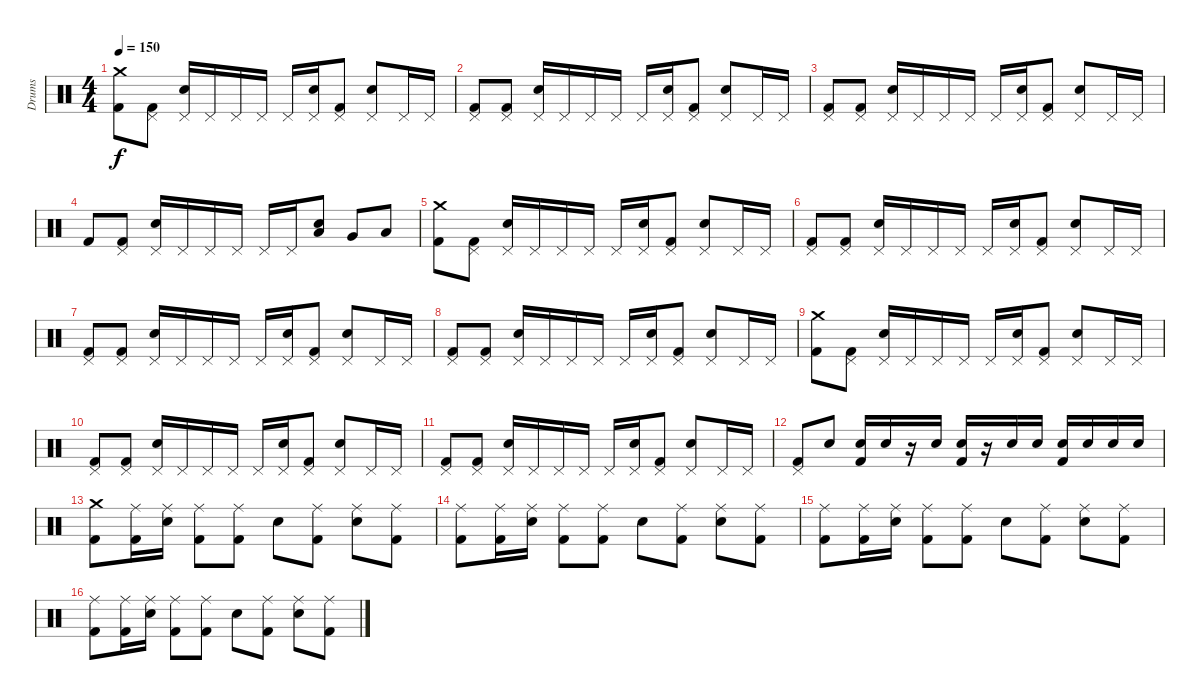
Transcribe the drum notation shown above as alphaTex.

\track ("Drums" "Drums") {instrument percussion}
\staff {score}
\articulation defaults
\ts (4 4)
\tempo 150
\clef neutral
\ks c
("Crash medium (hit)" "Kick (hit) 2").8{dy f} ("Pedal Hi-Hat (hit)" "Kick (hit) 2").8 ("Pedal Hi-Hat (hit)" "Electric Snare (hit)").16 "Pedal Hi-Hat (hit)".16 "Pedal Hi-Hat (hit)".16 "Pedal Hi-Hat (hit)".16 "Pedal Hi-Hat (hit)".16 ("Pedal Hi-Hat (hit)" "Electric Snare (hit)").16 ("Pedal Hi-Hat (hit)" "Kick (hit) 2").8 ("Pedal Hi-Hat (hit)" "Electric Snare (hit)").8 "Pedal Hi-Hat (hit)".16 "Pedal Hi-Hat (hit)".16 |
("Pedal Hi-Hat (hit)" "Kick (hit) 2").8 ("Pedal Hi-Hat (hit)" "Kick (hit) 2").8 ("Pedal Hi-Hat (hit)" "Electric Snare (hit)").16 "Pedal Hi-Hat (hit)".16 "Pedal Hi-Hat (hit)".16 "Pedal Hi-Hat (hit)".16 "Pedal Hi-Hat (hit)".16 ("Pedal Hi-Hat (hit)" "Electric Snare (hit)").16 ("Pedal Hi-Hat (hit)" "Kick (hit) 2").8 ("Pedal Hi-Hat (hit)" "Electric Snare (hit)").8 "Pedal Hi-Hat (hit)".16 "Pedal Hi-Hat (hit)".16 |
("Pedal Hi-Hat (hit)" "Kick (hit) 2").8 ("Pedal Hi-Hat (hit)" "Kick (hit) 2").8 ("Pedal Hi-Hat (hit)" "Electric Snare (hit)").16 "Pedal Hi-Hat (hit)".16 "Pedal Hi-Hat (hit)".16 "Pedal Hi-Hat (hit)".16 "Pedal Hi-Hat (hit)".16 ("Pedal Hi-Hat (hit)" "Electric Snare (hit)").16 ("Pedal Hi-Hat (hit)" "Kick (hit) 2").8 ("Pedal Hi-Hat (hit)" "Electric Snare (hit)").8 "Pedal Hi-Hat (hit)".16 "Pedal Hi-Hat (hit)".16 |
"Kick (hit) 2".8 ("Pedal Hi-Hat (hit)" "Kick (hit) 2").8 ("Pedal Hi-Hat (hit)" "Electric Snare (hit)").16 "Pedal Hi-Hat (hit)".16 "Pedal Hi-Hat (hit)".16 "Pedal Hi-Hat (hit)".16 "Pedal Hi-Hat (hit)".16 "Pedal Hi-Hat (hit)".16 ("Electric Snare (hit)" "Low Floor Tom (hit)").8 "Very Low Tom (hit)".8 "Low Floor Tom (hit)".8 |
("Crash medium (hit)" "Kick (hit) 2").8 ("Pedal Hi-Hat (hit)" "Kick (hit) 2").8 ("Pedal Hi-Hat (hit)" "Electric Snare (hit)").16 "Pedal Hi-Hat (hit)".16 "Pedal Hi-Hat (hit)".16 "Pedal Hi-Hat (hit)".16 "Pedal Hi-Hat (hit)".16 ("Pedal Hi-Hat (hit)" "Electric Snare (hit)").16 ("Pedal Hi-Hat (hit)" "Kick (hit) 2").8 ("Pedal Hi-Hat (hit)" "Electric Snare (hit)").8 "Pedal Hi-Hat (hit)".16 "Pedal Hi-Hat (hit)".16 |
("Pedal Hi-Hat (hit)" "Kick (hit) 2").8 ("Pedal Hi-Hat (hit)" "Kick (hit) 2").8 ("Pedal Hi-Hat (hit)" "Electric Snare (hit)").16 "Pedal Hi-Hat (hit)".16 "Pedal Hi-Hat (hit)".16 "Pedal Hi-Hat (hit)".16 "Pedal Hi-Hat (hit)".16 ("Pedal Hi-Hat (hit)" "Electric Snare (hit)").16 ("Pedal Hi-Hat (hit)" "Kick (hit) 2").8 ("Pedal Hi-Hat (hit)" "Electric Snare (hit)").8 "Pedal Hi-Hat (hit)".16 "Pedal Hi-Hat (hit)".16 |
("Pedal Hi-Hat (hit)" "Kick (hit) 2").8 ("Pedal Hi-Hat (hit)" "Kick (hit) 2").8 ("Pedal Hi-Hat (hit)" "Electric Snare (hit)").16 "Pedal Hi-Hat (hit)".16 "Pedal Hi-Hat (hit)".16 "Pedal Hi-Hat (hit)".16 "Pedal Hi-Hat (hit)".16 ("Pedal Hi-Hat (hit)" "Electric Snare (hit)").16 ("Pedal Hi-Hat (hit)" "Kick (hit) 2").8 ("Pedal Hi-Hat (hit)" "Electric Snare (hit)").8 "Pedal Hi-Hat (hit)".16 "Pedal Hi-Hat (hit)".16 |
("Pedal Hi-Hat (hit)" "Kick (hit) 2").8 ("Pedal Hi-Hat (hit)" "Kick (hit) 2").8 ("Pedal Hi-Hat (hit)" "Electric Snare (hit)").16 "Pedal Hi-Hat (hit)".16 "Pedal Hi-Hat (hit)".16 "Pedal Hi-Hat (hit)".16 "Pedal Hi-Hat (hit)".16 ("Pedal Hi-Hat (hit)" "Electric Snare (hit)").16 ("Pedal Hi-Hat (hit)" "Kick (hit) 2").8 ("Pedal Hi-Hat (hit)" "Electric Snare (hit)").8 "Pedal Hi-Hat (hit)".16 "Pedal Hi-Hat (hit)".16 |
("Crash medium (hit)" "Kick (hit) 2").8 ("Pedal Hi-Hat (hit)" "Kick (hit) 2").8 ("Pedal Hi-Hat (hit)" "Electric Snare (hit)").16 "Pedal Hi-Hat (hit)".16 "Pedal Hi-Hat (hit)".16 "Pedal Hi-Hat (hit)".16 "Pedal Hi-Hat (hit)".16 ("Pedal Hi-Hat (hit)" "Electric Snare (hit)").16 ("Pedal Hi-Hat (hit)" "Kick (hit) 2").8 ("Pedal Hi-Hat (hit)" "Electric Snare (hit)").8 "Pedal Hi-Hat (hit)".16 "Pedal Hi-Hat (hit)".16 |
("Pedal Hi-Hat (hit)" "Kick (hit) 2").8 ("Pedal Hi-Hat (hit)" "Kick (hit) 2").8 ("Pedal Hi-Hat (hit)" "Electric Snare (hit)").16 "Pedal Hi-Hat (hit)".16 "Pedal Hi-Hat (hit)".16 "Pedal Hi-Hat (hit)".16 "Pedal Hi-Hat (hit)".16 ("Pedal Hi-Hat (hit)" "Electric Snare (hit)").16 ("Pedal Hi-Hat (hit)" "Kick (hit) 2").8 ("Pedal Hi-Hat (hit)" "Electric Snare (hit)").8 "Pedal Hi-Hat (hit)".16 "Pedal Hi-Hat (hit)".16 |
("Pedal Hi-Hat (hit)" "Kick (hit) 2").8 ("Pedal Hi-Hat (hit)" "Kick (hit) 2").8 ("Pedal Hi-Hat (hit)" "Electric Snare (hit)").16 "Pedal Hi-Hat (hit)".16 "Pedal Hi-Hat (hit)".16 "Pedal Hi-Hat (hit)".16 "Pedal Hi-Hat (hit)".16 ("Pedal Hi-Hat (hit)" "Electric Snare (hit)").16 ("Pedal Hi-Hat (hit)" "Kick (hit) 2").8 ("Pedal Hi-Hat (hit)" "Electric Snare (hit)").8 "Pedal Hi-Hat (hit)".16 "Pedal Hi-Hat (hit)".16 |
("Pedal Hi-Hat (hit)" "Kick (hit) 2").8 "Electric Snare (hit)".8 ("Electric Snare (hit)" "Kick (hit) 2").16 "Electric Snare (hit)".16 r.16 "Electric Snare (hit)".16 ("Electric Snare (hit)" "Kick (hit) 2").16 r.16 "Electric Snare (hit)".16 "Electric Snare (hit)".16 ("Electric Snare (hit)" "Kick (hit) 2").16 "Electric Snare (hit)".16 "Electric Snare (hit)".16 "Electric Snare (hit)".16 |
("Crash medium (hit)" "Kick (hit) 2").8 ("Ride (middle)" "Kick (hit) 2").16 ("Ride (middle)" "Electric Snare (hit)").16 ("Ride (middle)" "Kick (hit) 2").8 ("Ride (middle)" "Kick (hit) 2").8 "Electric Snare (hit)".8 ("Ride (middle)" "Kick (hit) 2").8 ("Ride (middle)" "Electric Snare (hit)").8 ("Ride (middle)" "Kick (hit) 2").8 |
("Ride (middle)" "Kick (hit) 2").8 ("Ride (middle)" "Kick (hit) 2").16 ("Ride (middle)" "Electric Snare (hit)").16 ("Ride (middle)" "Kick (hit) 2").8 ("Ride (middle)" "Kick (hit) 2").8 "Electric Snare (hit)".8 ("Ride (middle)" "Kick (hit) 2").8 ("Ride (middle)" "Electric Snare (hit)").8 ("Ride (middle)" "Kick (hit) 2").8 |
("Ride (middle)" "Kick (hit) 2").8 ("Ride (middle)" "Kick (hit) 2").16 ("Ride (middle)" "Electric Snare (hit)").16 ("Ride (middle)" "Kick (hit) 2").8 ("Ride (middle)" "Kick (hit) 2").8 "Electric Snare (hit)".8 ("Ride (middle)" "Kick (hit) 2").8 ("Ride (middle)" "Electric Snare (hit)").8 ("Ride (middle)" "Kick (hit) 2").8 |
("Ride (middle)" "Kick (hit) 2").8 ("Ride (middle)" "Kick (hit) 2").16 ("Ride (middle)" "Electric Snare (hit)").16 ("Ride (middle)" "Kick (hit) 2").8 ("Ride (middle)" "Kick (hit) 2").8 "Electric Snare (hit)".8 ("Ride (middle)" "Kick (hit) 2").8 ("Ride (middle)" "Electric Snare (hit)").8 ("Ride (middle)" "Kick (hit) 2").8
